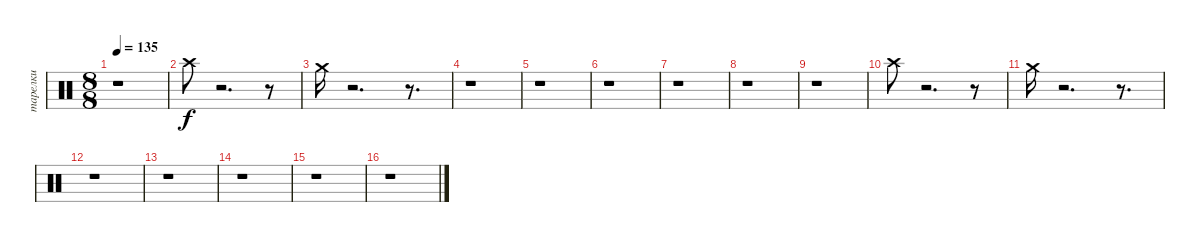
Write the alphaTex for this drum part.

\track ("тарелки" "тарелки") {instrument percussion}
\staff {score}
\articulation defaults
\ts (8 8)
\tempo 135
\clef neutral
\ks c
r.1{dy f} |
"Crash high (hit)".8 r.2{d} r.8 |
"Crash medium (hit)".16 r.2{d} r.8{d} |
r.1 |
r.1 |
r.1 |
r.1 |
r.1 |
r.1 |
"Crash high (hit)".8 r.2{d} r.8 |
"Crash medium (hit)".16 r.2{d} r.8{d} |
r.1 |
r.1 |
r.1 |
r.1 |
r.1
